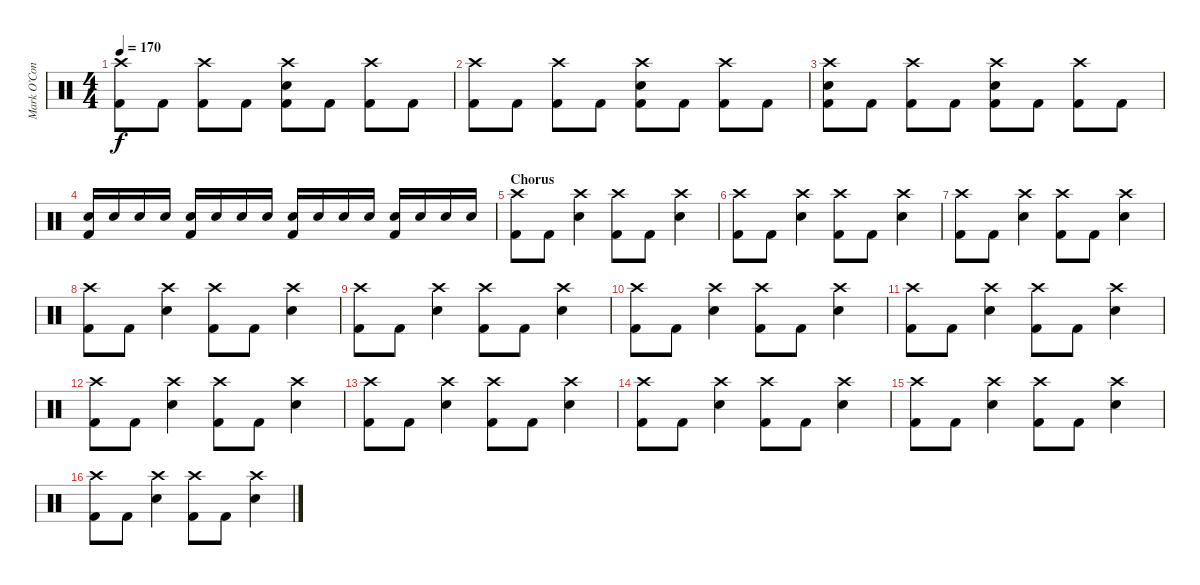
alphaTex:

\track ("Mark O’Connell - Drums" "Mark O’Con") {instrument percussion}
\staff {score}
\articulation defaults
\ts (4 4)
\tempo 170
\clef neutral
\ks c
("Crash high (hit)" "Kick (hit) 2").8{dy f} "Kick (hit) 2".8 ("Crash high (hit)" "Kick (hit) 2").8 "Kick (hit) 2".8 ("Crash high (hit)" "Snare (hit) 2" "Kick (hit) 2").8 "Kick (hit) 2".8 ("Crash high (hit)" "Kick (hit) 2").8 "Kick (hit) 2".8 |
("Crash high (hit)" "Kick (hit) 2").8 "Kick (hit) 2".8 ("Crash high (hit)" "Kick (hit) 2").8 "Kick (hit) 2".8 ("Crash high (hit)" "Snare (hit) 2" "Kick (hit) 2").8 "Kick (hit) 2".8 ("Crash high (hit)" "Kick (hit) 2").8 "Kick (hit) 2".8 |
("Crash high (hit)" "Snare (hit) 2" "Kick (hit) 2").8 "Kick (hit) 2".8 ("Crash high (hit)" "Kick (hit) 2").8 "Kick (hit) 2".8 ("Crash high (hit)" "Snare (hit) 2" "Kick (hit) 2").8 "Kick (hit) 2".8 ("Crash high (hit)" "Kick (hit) 2").8 "Kick (hit) 2".8 |
("Snare (hit) 2" "Kick (hit) 2").16 "Snare (hit) 2".16 "Snare (hit) 2".16 "Snare (hit) 2".16 ("Snare (hit) 2" "Kick (hit) 2").16 "Snare (hit) 2".16 "Snare (hit) 2".16 "Snare (hit) 2".16 ("Snare (hit) 2" "Kick (hit) 2").16 "Snare (hit) 2".16 "Snare (hit) 2".16 "Snare (hit) 2".16 ("Snare (hit) 2" "Kick (hit) 2").16 "Snare (hit) 2".16 "Snare (hit) 2".16 "Snare (hit) 2".16 |
\section ("" "Chorus")
("Crash high (hit)" "Kick (hit) 2").8 "Kick (hit) 2".8 ("Crash high (hit)" "Snare (hit) 2").4 ("Crash high (hit)" "Kick (hit) 2").8 "Kick (hit) 2".8 ("Crash high (hit)" "Snare (hit) 2").4 |
("Crash high (hit)" "Kick (hit) 2").8 "Kick (hit) 2".8 ("Crash high (hit)" "Snare (hit) 2").4 ("Crash high (hit)" "Kick (hit) 2").8 "Kick (hit) 2".8 ("Crash high (hit)" "Snare (hit) 2").4 |
("Crash high (hit)" "Kick (hit) 2").8 "Kick (hit) 2".8 ("Crash high (hit)" "Snare (hit) 2").4 ("Crash high (hit)" "Kick (hit) 2").8 "Kick (hit) 2".8 ("Crash high (hit)" "Snare (hit) 2").4 |
("Crash high (hit)" "Kick (hit) 2").8 "Kick (hit) 2".8 ("Crash high (hit)" "Snare (hit) 2").4 ("Crash high (hit)" "Kick (hit) 2").8 "Kick (hit) 2".8 ("Crash high (hit)" "Snare (hit) 2").4 |
("Crash high (hit)" "Kick (hit) 2").8 "Kick (hit) 2".8 ("Crash high (hit)" "Snare (hit) 2").4 ("Crash high (hit)" "Kick (hit) 2").8 "Kick (hit) 2".8 ("Crash high (hit)" "Snare (hit) 2").4 |
("Crash high (hit)" "Kick (hit) 2").8 "Kick (hit) 2".8 ("Crash high (hit)" "Snare (hit) 2").4 ("Crash high (hit)" "Kick (hit) 2").8 "Kick (hit) 2".8 ("Crash high (hit)" "Snare (hit) 2").4 |
("Crash high (hit)" "Kick (hit) 2").8 "Kick (hit) 2".8 ("Crash high (hit)" "Snare (hit) 2").4 ("Crash high (hit)" "Kick (hit) 2").8 "Kick (hit) 2".8 ("Crash high (hit)" "Snare (hit) 2").4 |
("Crash high (hit)" "Kick (hit) 2").8 "Kick (hit) 2".8 ("Crash high (hit)" "Snare (hit) 2").4 ("Crash high (hit)" "Kick (hit) 2").8 "Kick (hit) 2".8 ("Crash high (hit)" "Snare (hit) 2").4 |
("Crash high (hit)" "Kick (hit) 2").8 "Kick (hit) 2".8 ("Crash high (hit)" "Snare (hit) 2").4 ("Crash high (hit)" "Kick (hit) 2").8 "Kick (hit) 2".8 ("Crash high (hit)" "Snare (hit) 2").4 |
("Crash high (hit)" "Kick (hit) 2").8 "Kick (hit) 2".8 ("Crash high (hit)" "Snare (hit) 2").4 ("Crash high (hit)" "Kick (hit) 2").8 "Kick (hit) 2".8 ("Crash high (hit)" "Snare (hit) 2").4 |
("Crash high (hit)" "Kick (hit) 2").8 "Kick (hit) 2".8 ("Crash high (hit)" "Snare (hit) 2").4 ("Crash high (hit)" "Kick (hit) 2").8 "Kick (hit) 2".8 ("Crash high (hit)" "Snare (hit) 2").4 |
("Crash high (hit)" "Kick (hit) 2").8 "Kick (hit) 2".8 ("Crash high (hit)" "Snare (hit) 2").4 ("Crash high (hit)" "Kick (hit) 2").8 "Kick (hit) 2".8 ("Crash high (hit)" "Snare (hit) 2").4
